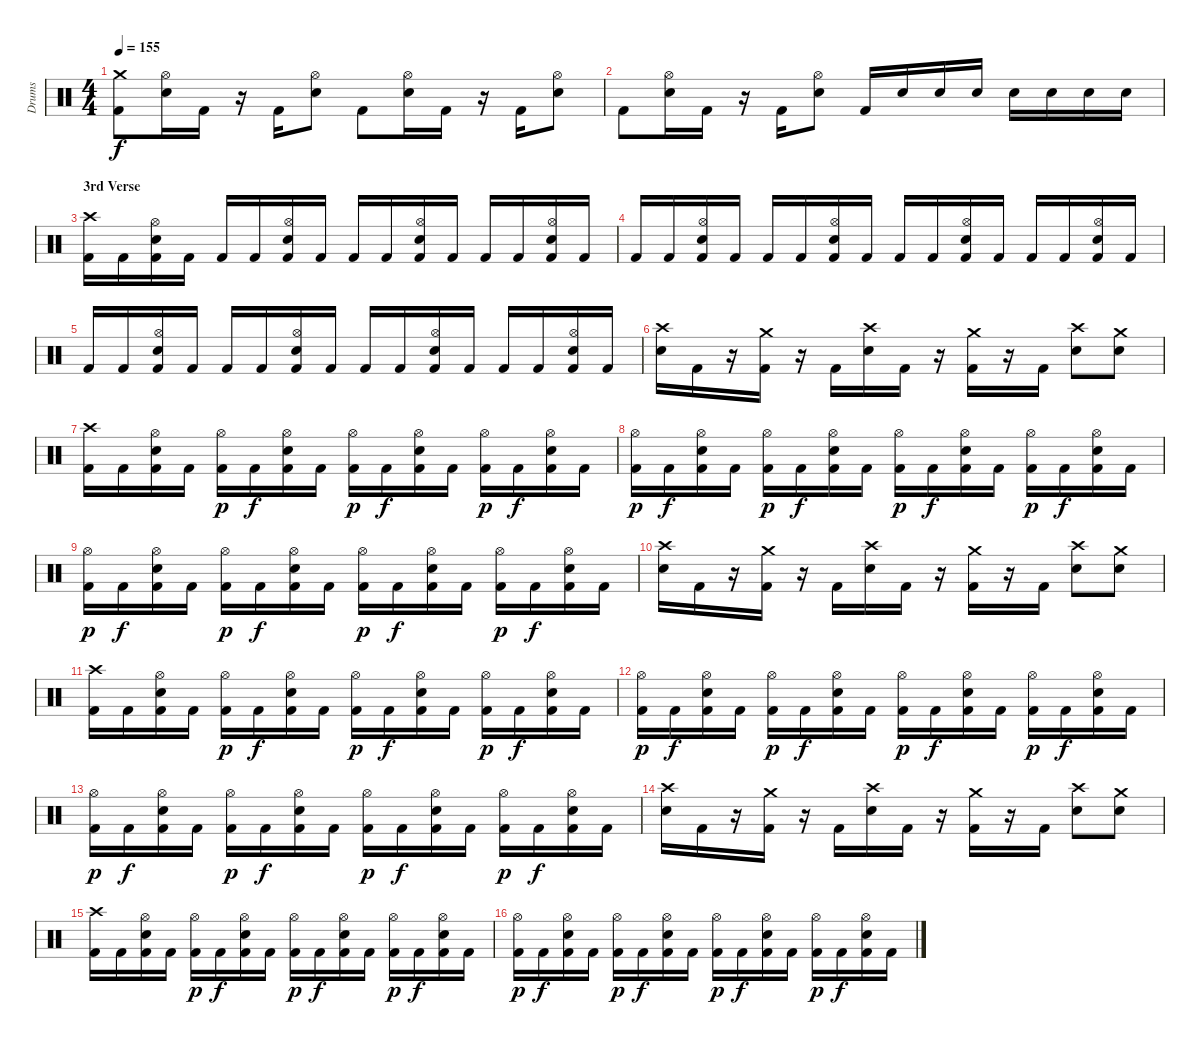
\track ("Drums" "Drums") {instrument percussion}
\staff {score}
\articulation defaults
\ts (4 4)
\tempo 155
\clef neutral
\ks c
("Crash medium (hit)" "Kick (hit) 2").8{dy f} ("Hi-Hat (open)" "Snare (hit) 2").16 "Kick (hit) 2".16 r.16 "Kick (hit) 2".16 ("Hi-Hat (open)" "Snare (hit) 2").8 "Kick (hit) 2".8 ("Hi-Hat (open)" "Snare (hit) 2").16 "Kick (hit) 2".16 r.16 "Kick (hit) 2".16 ("Hi-Hat (open)" "Snare (hit) 2").8 |
"Kick (hit) 2".8 ("Hi-Hat (open)" "Snare (hit) 2").16 "Kick (hit) 2".16 r.16 "Kick (hit) 2".16 ("Hi-Hat (open)" "Snare (hit) 2").8 "Kick (hit) 2".16 "Snare (hit) 2".16 "Snare (hit) 2".16 "Snare (hit) 2".16 "Snare (hit) 2".16 "Snare (hit) 2".16 "Snare (hit) 2".16 "Snare (hit) 2".16 |
\section ("" "3rd Verse")
("Crash high (hit)" "Kick (hit) 2").16 "Kick (hit) 2".16 ("Hi-Hat (open)" "Snare (hit) 2" "Kick (hit) 2").16 "Kick (hit) 2".16 "Kick (hit) 2".16 "Kick (hit) 2".16 ("Hi-Hat (open)" "Snare (hit) 2" "Kick (hit) 2").16 "Kick (hit) 2".16 "Kick (hit) 2".16 "Kick (hit) 2".16 ("Hi-Hat (open)" "Snare (hit) 2" "Kick (hit) 2").16 "Kick (hit) 2".16 "Kick (hit) 2".16 "Kick (hit) 2".16 ("Hi-Hat (open)" "Snare (hit) 2" "Kick (hit) 2").16 "Kick (hit) 2".16 |
"Kick (hit) 2".16 "Kick (hit) 2".16 ("Hi-Hat (open)" "Snare (hit) 2" "Kick (hit) 2").16 "Kick (hit) 2".16 "Kick (hit) 2".16 "Kick (hit) 2".16 ("Hi-Hat (open)" "Snare (hit) 2" "Kick (hit) 2").16 "Kick (hit) 2".16 "Kick (hit) 2".16 "Kick (hit) 2".16 ("Hi-Hat (open)" "Snare (hit) 2" "Kick (hit) 2").16 "Kick (hit) 2".16 "Kick (hit) 2".16 "Kick (hit) 2".16 ("Hi-Hat (open)" "Snare (hit) 2" "Kick (hit) 2").16 "Kick (hit) 2".16 |
"Kick (hit) 2".16 "Kick (hit) 2".16 ("Hi-Hat (open)" "Snare (hit) 2" "Kick (hit) 2").16 "Kick (hit) 2".16 "Kick (hit) 2".16 "Kick (hit) 2".16 ("Hi-Hat (open)" "Snare (hit) 2" "Kick (hit) 2").16 "Kick (hit) 2".16 "Kick (hit) 2".16 "Kick (hit) 2".16 ("Hi-Hat (open)" "Snare (hit) 2" "Kick (hit) 2").16 "Kick (hit) 2".16 "Kick (hit) 2".16 "Kick (hit) 2".16 ("Hi-Hat (open)" "Snare (hit) 2" "Kick (hit) 2").16 "Kick (hit) 2".16 |
("Crash high (hit)" "Snare (hit) 2").16 "Kick (hit) 2".16 r.16 ("Crash medium (hit)" "Kick (hit) 2").16 r.16 "Kick (hit) 2".16 ("Crash high (hit)" "Snare (hit) 2").16 "Kick (hit) 2".16 r.16 ("Crash medium (hit)" "Kick (hit) 2").16 r.16 "Kick (hit) 2".16 ("Crash high (hit)" "Snare (hit) 2").8 ("Crash medium (hit)" "Snare (hit) 2").8 |
("Crash high (hit)" "Kick (hit) 2").16 "Kick (hit) 2".16 ("Hi-Hat (open)" "Snare (hit) 2" "Kick (hit) 2").16 "Kick (hit) 2".16 ("Hi-Hat (open)" "Kick (hit) 2").16{dy p} "Kick (hit) 2".16{dy f} ("Hi-Hat (open)" "Snare (hit) 2" "Kick (hit) 2").16 "Kick (hit) 2".16 ("Hi-Hat (open)" "Kick (hit) 2").16{dy p} "Kick (hit) 2".16{dy f} ("Hi-Hat (open)" "Snare (hit) 2" "Kick (hit) 2").16 "Kick (hit) 2".16 ("Hi-Hat (open)" "Kick (hit) 2").16{dy p} "Kick (hit) 2".16{dy f} ("Hi-Hat (open)" "Snare (hit) 2" "Kick (hit) 2").16 "Kick (hit) 2".16 |
("Hi-Hat (open)" "Kick (hit) 2").16{dy p} "Kick (hit) 2".16{dy f} ("Hi-Hat (open)" "Snare (hit) 2" "Kick (hit) 2").16 "Kick (hit) 2".16 ("Hi-Hat (open)" "Kick (hit) 2").16{dy p} "Kick (hit) 2".16{dy f} ("Hi-Hat (open)" "Snare (hit) 2" "Kick (hit) 2").16 "Kick (hit) 2".16 ("Hi-Hat (open)" "Kick (hit) 2").16{dy p} "Kick (hit) 2".16{dy f} ("Hi-Hat (open)" "Snare (hit) 2" "Kick (hit) 2").16 "Kick (hit) 2".16 ("Hi-Hat (open)" "Kick (hit) 2").16{dy p} "Kick (hit) 2".16{dy f} ("Hi-Hat (open)" "Snare (hit) 2" "Kick (hit) 2").16 "Kick (hit) 2".16 |
("Hi-Hat (open)" "Kick (hit) 2").16{dy p} "Kick (hit) 2".16{dy f} ("Hi-Hat (open)" "Snare (hit) 2" "Kick (hit) 2").16 "Kick (hit) 2".16 ("Hi-Hat (open)" "Kick (hit) 2").16{dy p} "Kick (hit) 2".16{dy f} ("Hi-Hat (open)" "Snare (hit) 2" "Kick (hit) 2").16 "Kick (hit) 2".16 ("Hi-Hat (open)" "Kick (hit) 2").16{dy p} "Kick (hit) 2".16{dy f} ("Hi-Hat (open)" "Snare (hit) 2" "Kick (hit) 2").16 "Kick (hit) 2".16 ("Hi-Hat (open)" "Kick (hit) 2").16{dy p} "Kick (hit) 2".16{dy f} ("Hi-Hat (open)" "Snare (hit) 2" "Kick (hit) 2").16 "Kick (hit) 2".16 |
("Crash high (hit)" "Snare (hit) 2").16 "Kick (hit) 2".16 r.16 ("Crash medium (hit)" "Kick (hit) 2").16 r.16 "Kick (hit) 2".16 ("Crash high (hit)" "Snare (hit) 2").16 "Kick (hit) 2".16 r.16 ("Crash medium (hit)" "Kick (hit) 2").16 r.16 "Kick (hit) 2".16 ("Crash high (hit)" "Snare (hit) 2").8 ("Crash medium (hit)" "Snare (hit) 2").8 |
("Crash high (hit)" "Kick (hit) 2").16 "Kick (hit) 2".16 ("Hi-Hat (open)" "Snare (hit) 2" "Kick (hit) 2").16 "Kick (hit) 2".16 ("Hi-Hat (open)" "Kick (hit) 2").16{dy p} "Kick (hit) 2".16{dy f} ("Hi-Hat (open)" "Snare (hit) 2" "Kick (hit) 2").16 "Kick (hit) 2".16 ("Hi-Hat (open)" "Kick (hit) 2").16{dy p} "Kick (hit) 2".16{dy f} ("Hi-Hat (open)" "Snare (hit) 2" "Kick (hit) 2").16 "Kick (hit) 2".16 ("Hi-Hat (open)" "Kick (hit) 2").16{dy p} "Kick (hit) 2".16{dy f} ("Hi-Hat (open)" "Snare (hit) 2" "Kick (hit) 2").16 "Kick (hit) 2".16 |
("Hi-Hat (open)" "Kick (hit) 2").16{dy p} "Kick (hit) 2".16{dy f} ("Hi-Hat (open)" "Snare (hit) 2" "Kick (hit) 2").16 "Kick (hit) 2".16 ("Hi-Hat (open)" "Kick (hit) 2").16{dy p} "Kick (hit) 2".16{dy f} ("Hi-Hat (open)" "Snare (hit) 2" "Kick (hit) 2").16 "Kick (hit) 2".16 ("Hi-Hat (open)" "Kick (hit) 2").16{dy p} "Kick (hit) 2".16{dy f} ("Hi-Hat (open)" "Snare (hit) 2" "Kick (hit) 2").16 "Kick (hit) 2".16 ("Hi-Hat (open)" "Kick (hit) 2").16{dy p} "Kick (hit) 2".16{dy f} ("Hi-Hat (open)" "Snare (hit) 2" "Kick (hit) 2").16 "Kick (hit) 2".16 |
("Hi-Hat (open)" "Kick (hit) 2").16{dy p} "Kick (hit) 2".16{dy f} ("Hi-Hat (open)" "Snare (hit) 2" "Kick (hit) 2").16 "Kick (hit) 2".16 ("Hi-Hat (open)" "Kick (hit) 2").16{dy p} "Kick (hit) 2".16{dy f} ("Hi-Hat (open)" "Snare (hit) 2" "Kick (hit) 2").16 "Kick (hit) 2".16 ("Hi-Hat (open)" "Kick (hit) 2").16{dy p} "Kick (hit) 2".16{dy f} ("Hi-Hat (open)" "Snare (hit) 2" "Kick (hit) 2").16 "Kick (hit) 2".16 ("Hi-Hat (open)" "Kick (hit) 2").16{dy p} "Kick (hit) 2".16{dy f} ("Hi-Hat (open)" "Snare (hit) 2" "Kick (hit) 2").16 "Kick (hit) 2".16 |
("Crash high (hit)" "Snare (hit) 2").16 "Kick (hit) 2".16 r.16 ("Crash medium (hit)" "Kick (hit) 2").16 r.16 "Kick (hit) 2".16 ("Crash high (hit)" "Snare (hit) 2").16 "Kick (hit) 2".16 r.16 ("Crash medium (hit)" "Kick (hit) 2").16 r.16 "Kick (hit) 2".16 ("Crash high (hit)" "Snare (hit) 2").8 ("Crash medium (hit)" "Snare (hit) 2").8 |
("Crash high (hit)" "Kick (hit) 2").16 "Kick (hit) 2".16 ("Hi-Hat (open)" "Snare (hit) 2" "Kick (hit) 2").16 "Kick (hit) 2".16 ("Hi-Hat (open)" "Kick (hit) 2").16{dy p} "Kick (hit) 2".16{dy f} ("Hi-Hat (open)" "Snare (hit) 2" "Kick (hit) 2").16 "Kick (hit) 2".16 ("Hi-Hat (open)" "Kick (hit) 2").16{dy p} "Kick (hit) 2".16{dy f} ("Hi-Hat (open)" "Snare (hit) 2" "Kick (hit) 2").16 "Kick (hit) 2".16 ("Hi-Hat (open)" "Kick (hit) 2").16{dy p} "Kick (hit) 2".16{dy f} ("Hi-Hat (open)" "Snare (hit) 2" "Kick (hit) 2").16 "Kick (hit) 2".16 |
("Hi-Hat (open)" "Kick (hit) 2").16{dy p} "Kick (hit) 2".16{dy f} ("Hi-Hat (open)" "Snare (hit) 2" "Kick (hit) 2").16 "Kick (hit) 2".16 ("Hi-Hat (open)" "Kick (hit) 2").16{dy p} "Kick (hit) 2".16{dy f} ("Hi-Hat (open)" "Snare (hit) 2" "Kick (hit) 2").16 "Kick (hit) 2".16 ("Hi-Hat (open)" "Kick (hit) 2").16{dy p} "Kick (hit) 2".16{dy f} ("Hi-Hat (open)" "Snare (hit) 2" "Kick (hit) 2").16 "Kick (hit) 2".16 ("Hi-Hat (open)" "Kick (hit) 2").16{dy p} "Kick (hit) 2".16{dy f} ("Hi-Hat (open)" "Snare (hit) 2" "Kick (hit) 2").16 "Kick (hit) 2".16
